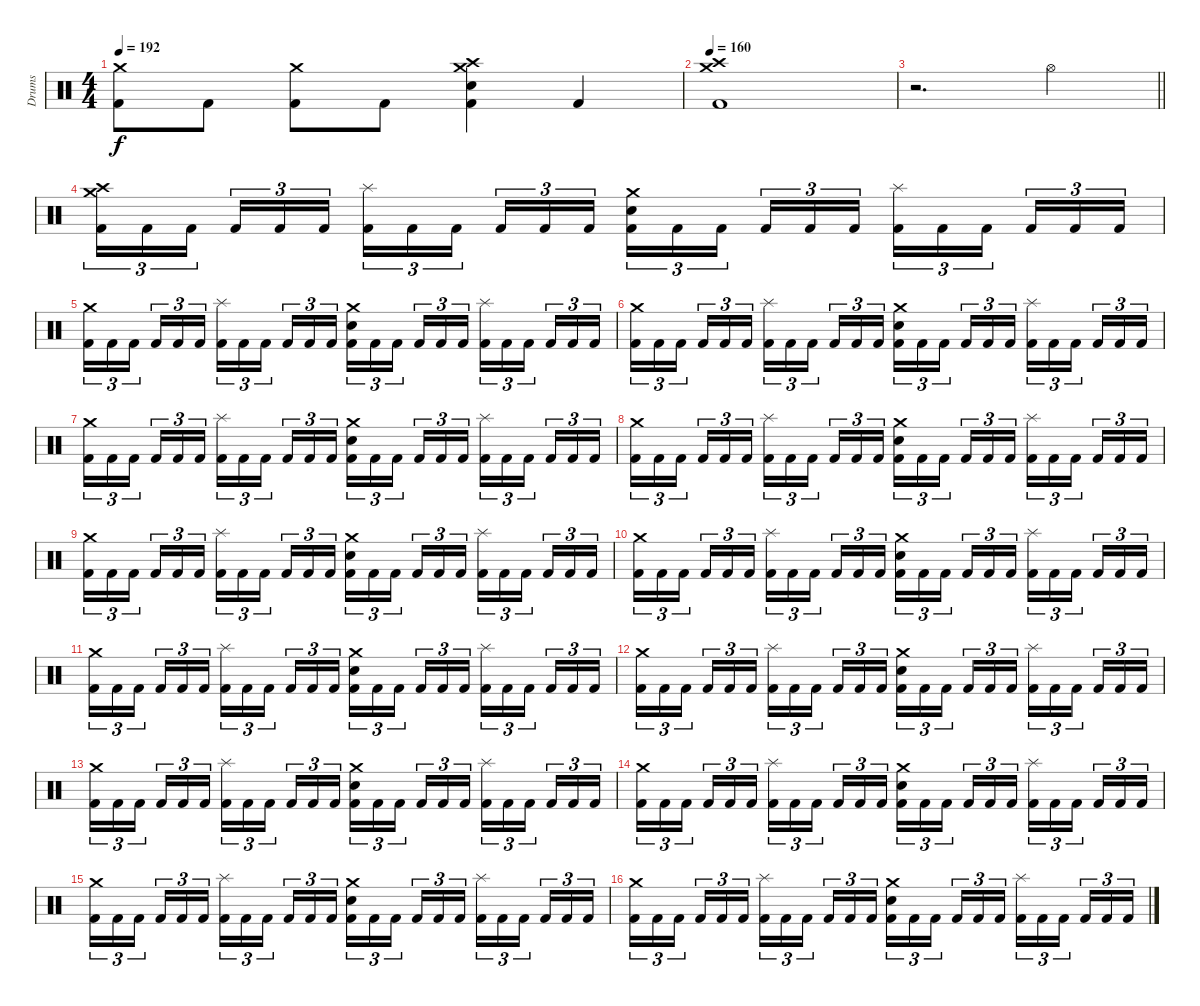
\track ("Drums" "Drums") {instrument percussion}
\staff {score}
\articulation defaults
\ts (4 4)
\tempo 192
\clef neutral
\ks c
("Crash medium (hit)" "Kick (hit) 2").8{dy f} "Kick (hit) 2".8 ("Crash medium (hit)" "Kick (hit) 2").8 "Kick (hit) 2".8 ("Crash high (hit)" "Crash medium (hit)" "Snare (hit) 2" "Kick (hit) 2").4 "Kick (hit) 2".4 |
\tempo 160
("Crash medium (hit)" "Crash high (hit)" "Kick (hit) 2").1 |
\barLineRight lightlight
r.2{d} "Hi-Hat (open)".4 |
\section ("" "")
("Crash medium (hit)" "Crash high (hit)" "Kick (hit) 2").16{tu (3 2)} "Kick (hit) 2".16{tu (3 2)} "Kick (hit) 2".16{tu (3 2) beam splitsecondary} "Kick (hit) 2".16{tu (3 2)} "Kick (hit) 2".16{tu (3 2)} "Kick (hit) 2".16{tu (3 2)} ("Splash (hit)" "Kick (hit) 2").16{tu (3 2)} "Kick (hit) 2".16{tu (3 2)} "Kick (hit) 2".16{tu (3 2) beam splitsecondary} "Kick (hit) 2".16{tu (3 2)} "Kick (hit) 2".16{tu (3 2)} "Kick (hit) 2".16{tu (3 2)} ("Crash medium (hit)" "Snare (hit) 2" "Kick (hit) 2").16{tu (3 2)} "Kick (hit) 2".16{tu (3 2)} "Kick (hit) 2".16{tu (3 2) beam splitsecondary} "Kick (hit) 2".16{tu (3 2)} "Kick (hit) 2".16{tu (3 2)} "Kick (hit) 2".16{tu (3 2)} ("Splash (hit)" "Kick (hit) 2").16{tu (3 2)} "Kick (hit) 2".16{tu (3 2)} "Kick (hit) 2".16{tu (3 2) beam splitsecondary} "Kick (hit) 2".16{tu (3 2)} "Kick (hit) 2".16{tu (3 2)} "Kick (hit) 2".16{tu (3 2)} |
("Crash medium (hit)" "Kick (hit) 2").16{tu (3 2)} "Kick (hit) 2".16{tu (3 2)} "Kick (hit) 2".16{tu (3 2) beam splitsecondary} "Kick (hit) 2".16{tu (3 2)} "Kick (hit) 2".16{tu (3 2)} "Kick (hit) 2".16{tu (3 2)} ("Splash (hit)" "Kick (hit) 2").16{tu (3 2)} "Kick (hit) 2".16{tu (3 2)} "Kick (hit) 2".16{tu (3 2) beam splitsecondary} "Kick (hit) 2".16{tu (3 2)} "Kick (hit) 2".16{tu (3 2)} "Kick (hit) 2".16{tu (3 2)} ("Crash medium (hit)" "Snare (hit) 2" "Kick (hit) 2").16{tu (3 2)} "Kick (hit) 2".16{tu (3 2)} "Kick (hit) 2".16{tu (3 2) beam splitsecondary} "Kick (hit) 2".16{tu (3 2)} "Kick (hit) 2".16{tu (3 2)} "Kick (hit) 2".16{tu (3 2)} ("Splash (hit)" "Kick (hit) 2").16{tu (3 2)} "Kick (hit) 2".16{tu (3 2)} "Kick (hit) 2".16{tu (3 2) beam splitsecondary} "Kick (hit) 2".16{tu (3 2)} "Kick (hit) 2".16{tu (3 2)} "Kick (hit) 2".16{tu (3 2)} |
("Crash medium (hit)" "Kick (hit) 2").16{tu (3 2)} "Kick (hit) 2".16{tu (3 2)} "Kick (hit) 2".16{tu (3 2) beam splitsecondary} "Kick (hit) 2".16{tu (3 2)} "Kick (hit) 2".16{tu (3 2)} "Kick (hit) 2".16{tu (3 2)} ("Splash (hit)" "Kick (hit) 2").16{tu (3 2)} "Kick (hit) 2".16{tu (3 2)} "Kick (hit) 2".16{tu (3 2) beam splitsecondary} "Kick (hit) 2".16{tu (3 2)} "Kick (hit) 2".16{tu (3 2)} "Kick (hit) 2".16{tu (3 2)} ("Crash medium (hit)" "Snare (hit) 2" "Kick (hit) 2").16{tu (3 2)} "Kick (hit) 2".16{tu (3 2)} "Kick (hit) 2".16{tu (3 2) beam splitsecondary} "Kick (hit) 2".16{tu (3 2)} "Kick (hit) 2".16{tu (3 2)} "Kick (hit) 2".16{tu (3 2)} ("Splash (hit)" "Kick (hit) 2").16{tu (3 2)} "Kick (hit) 2".16{tu (3 2)} "Kick (hit) 2".16{tu (3 2) beam splitsecondary} "Kick (hit) 2".16{tu (3 2)} "Kick (hit) 2".16{tu (3 2)} "Kick (hit) 2".16{tu (3 2)} |
("Crash medium (hit)" "Kick (hit) 2").16{tu (3 2)} "Kick (hit) 2".16{tu (3 2)} "Kick (hit) 2".16{tu (3 2) beam splitsecondary} "Kick (hit) 2".16{tu (3 2)} "Kick (hit) 2".16{tu (3 2)} "Kick (hit) 2".16{tu (3 2)} ("Splash (hit)" "Kick (hit) 2").16{tu (3 2)} "Kick (hit) 2".16{tu (3 2)} "Kick (hit) 2".16{tu (3 2) beam splitsecondary} "Kick (hit) 2".16{tu (3 2)} "Kick (hit) 2".16{tu (3 2)} "Kick (hit) 2".16{tu (3 2)} ("Crash medium (hit)" "Snare (hit) 2" "Kick (hit) 2").16{tu (3 2)} "Kick (hit) 2".16{tu (3 2)} "Kick (hit) 2".16{tu (3 2) beam splitsecondary} "Kick (hit) 2".16{tu (3 2)} "Kick (hit) 2".16{tu (3 2)} "Kick (hit) 2".16{tu (3 2)} ("Splash (hit)" "Kick (hit) 2").16{tu (3 2)} "Kick (hit) 2".16{tu (3 2)} "Kick (hit) 2".16{tu (3 2) beam splitsecondary} "Kick (hit) 2".16{tu (3 2)} "Kick (hit) 2".16{tu (3 2)} "Kick (hit) 2".16{tu (3 2)} |
("Crash medium (hit)" "Kick (hit) 2").16{tu (3 2)} "Kick (hit) 2".16{tu (3 2)} "Kick (hit) 2".16{tu (3 2) beam splitsecondary} "Kick (hit) 2".16{tu (3 2)} "Kick (hit) 2".16{tu (3 2)} "Kick (hit) 2".16{tu (3 2)} ("Splash (hit)" "Kick (hit) 2").16{tu (3 2)} "Kick (hit) 2".16{tu (3 2)} "Kick (hit) 2".16{tu (3 2) beam splitsecondary} "Kick (hit) 2".16{tu (3 2)} "Kick (hit) 2".16{tu (3 2)} "Kick (hit) 2".16{tu (3 2)} ("Crash medium (hit)" "Snare (hit) 2" "Kick (hit) 2").16{tu (3 2)} "Kick (hit) 2".16{tu (3 2)} "Kick (hit) 2".16{tu (3 2) beam splitsecondary} "Kick (hit) 2".16{tu (3 2)} "Kick (hit) 2".16{tu (3 2)} "Kick (hit) 2".16{tu (3 2)} ("Splash (hit)" "Kick (hit) 2").16{tu (3 2)} "Kick (hit) 2".16{tu (3 2)} "Kick (hit) 2".16{tu (3 2) beam splitsecondary} "Kick (hit) 2".16{tu (3 2)} "Kick (hit) 2".16{tu (3 2)} "Kick (hit) 2".16{tu (3 2)} |
("Crash medium (hit)" "Kick (hit) 2").16{tu (3 2)} "Kick (hit) 2".16{tu (3 2)} "Kick (hit) 2".16{tu (3 2) beam splitsecondary} "Kick (hit) 2".16{tu (3 2)} "Kick (hit) 2".16{tu (3 2)} "Kick (hit) 2".16{tu (3 2)} ("Splash (hit)" "Kick (hit) 2").16{tu (3 2)} "Kick (hit) 2".16{tu (3 2)} "Kick (hit) 2".16{tu (3 2) beam splitsecondary} "Kick (hit) 2".16{tu (3 2)} "Kick (hit) 2".16{tu (3 2)} "Kick (hit) 2".16{tu (3 2)} ("Crash medium (hit)" "Snare (hit) 2" "Kick (hit) 2").16{tu (3 2)} "Kick (hit) 2".16{tu (3 2)} "Kick (hit) 2".16{tu (3 2) beam splitsecondary} "Kick (hit) 2".16{tu (3 2)} "Kick (hit) 2".16{tu (3 2)} "Kick (hit) 2".16{tu (3 2)} ("Splash (hit)" "Kick (hit) 2").16{tu (3 2)} "Kick (hit) 2".16{tu (3 2)} "Kick (hit) 2".16{tu (3 2) beam splitsecondary} "Kick (hit) 2".16{tu (3 2)} "Kick (hit) 2".16{tu (3 2)} "Kick (hit) 2".16{tu (3 2)} |
("Crash medium (hit)" "Kick (hit) 2").16{tu (3 2)} "Kick (hit) 2".16{tu (3 2)} "Kick (hit) 2".16{tu (3 2) beam splitsecondary} "Kick (hit) 2".16{tu (3 2)} "Kick (hit) 2".16{tu (3 2)} "Kick (hit) 2".16{tu (3 2)} ("Splash (hit)" "Kick (hit) 2").16{tu (3 2)} "Kick (hit) 2".16{tu (3 2)} "Kick (hit) 2".16{tu (3 2) beam splitsecondary} "Kick (hit) 2".16{tu (3 2)} "Kick (hit) 2".16{tu (3 2)} "Kick (hit) 2".16{tu (3 2)} ("Crash medium (hit)" "Snare (hit) 2" "Kick (hit) 2").16{tu (3 2)} "Kick (hit) 2".16{tu (3 2)} "Kick (hit) 2".16{tu (3 2) beam splitsecondary} "Kick (hit) 2".16{tu (3 2)} "Kick (hit) 2".16{tu (3 2)} "Kick (hit) 2".16{tu (3 2)} ("Splash (hit)" "Kick (hit) 2").16{tu (3 2)} "Kick (hit) 2".16{tu (3 2)} "Kick (hit) 2".16{tu (3 2) beam splitsecondary} "Kick (hit) 2".16{tu (3 2)} "Kick (hit) 2".16{tu (3 2)} "Kick (hit) 2".16{tu (3 2)} |
("Crash medium (hit)" "Kick (hit) 2").16{tu (3 2)} "Kick (hit) 2".16{tu (3 2)} "Kick (hit) 2".16{tu (3 2) beam splitsecondary} "Kick (hit) 2".16{tu (3 2)} "Kick (hit) 2".16{tu (3 2)} "Kick (hit) 2".16{tu (3 2)} ("Splash (hit)" "Kick (hit) 2").16{tu (3 2)} "Kick (hit) 2".16{tu (3 2)} "Kick (hit) 2".16{tu (3 2) beam splitsecondary} "Kick (hit) 2".16{tu (3 2)} "Kick (hit) 2".16{tu (3 2)} "Kick (hit) 2".16{tu (3 2)} ("Crash medium (hit)" "Snare (hit) 2" "Kick (hit) 2").16{tu (3 2)} "Kick (hit) 2".16{tu (3 2)} "Kick (hit) 2".16{tu (3 2) beam splitsecondary} "Kick (hit) 2".16{tu (3 2)} "Kick (hit) 2".16{tu (3 2)} "Kick (hit) 2".16{tu (3 2)} ("Splash (hit)" "Kick (hit) 2").16{tu (3 2)} "Kick (hit) 2".16{tu (3 2)} "Kick (hit) 2".16{tu (3 2) beam splitsecondary} "Kick (hit) 2".16{tu (3 2)} "Kick (hit) 2".16{tu (3 2)} "Kick (hit) 2".16{tu (3 2)} |
("Crash medium (hit)" "Kick (hit) 2").16{tu (3 2)} "Kick (hit) 2".16{tu (3 2)} "Kick (hit) 2".16{tu (3 2) beam splitsecondary} "Kick (hit) 2".16{tu (3 2)} "Kick (hit) 2".16{tu (3 2)} "Kick (hit) 2".16{tu (3 2)} ("Splash (hit)" "Kick (hit) 2").16{tu (3 2)} "Kick (hit) 2".16{tu (3 2)} "Kick (hit) 2".16{tu (3 2) beam splitsecondary} "Kick (hit) 2".16{tu (3 2)} "Kick (hit) 2".16{tu (3 2)} "Kick (hit) 2".16{tu (3 2)} ("Crash medium (hit)" "Snare (hit) 2" "Kick (hit) 2").16{tu (3 2)} "Kick (hit) 2".16{tu (3 2)} "Kick (hit) 2".16{tu (3 2) beam splitsecondary} "Kick (hit) 2".16{tu (3 2)} "Kick (hit) 2".16{tu (3 2)} "Kick (hit) 2".16{tu (3 2)} ("Splash (hit)" "Kick (hit) 2").16{tu (3 2)} "Kick (hit) 2".16{tu (3 2)} "Kick (hit) 2".16{tu (3 2) beam splitsecondary} "Kick (hit) 2".16{tu (3 2)} "Kick (hit) 2".16{tu (3 2)} "Kick (hit) 2".16{tu (3 2)} |
("Crash medium (hit)" "Kick (hit) 2").16{tu (3 2)} "Kick (hit) 2".16{tu (3 2)} "Kick (hit) 2".16{tu (3 2) beam splitsecondary} "Kick (hit) 2".16{tu (3 2)} "Kick (hit) 2".16{tu (3 2)} "Kick (hit) 2".16{tu (3 2)} ("Splash (hit)" "Kick (hit) 2").16{tu (3 2)} "Kick (hit) 2".16{tu (3 2)} "Kick (hit) 2".16{tu (3 2) beam splitsecondary} "Kick (hit) 2".16{tu (3 2)} "Kick (hit) 2".16{tu (3 2)} "Kick (hit) 2".16{tu (3 2)} ("Crash medium (hit)" "Snare (hit) 2" "Kick (hit) 2").16{tu (3 2)} "Kick (hit) 2".16{tu (3 2)} "Kick (hit) 2".16{tu (3 2) beam splitsecondary} "Kick (hit) 2".16{tu (3 2)} "Kick (hit) 2".16{tu (3 2)} "Kick (hit) 2".16{tu (3 2)} ("Splash (hit)" "Kick (hit) 2").16{tu (3 2)} "Kick (hit) 2".16{tu (3 2)} "Kick (hit) 2".16{tu (3 2) beam splitsecondary} "Kick (hit) 2".16{tu (3 2)} "Kick (hit) 2".16{tu (3 2)} "Kick (hit) 2".16{tu (3 2)} |
("Crash medium (hit)" "Kick (hit) 2").16{tu (3 2)} "Kick (hit) 2".16{tu (3 2)} "Kick (hit) 2".16{tu (3 2) beam splitsecondary} "Kick (hit) 2".16{tu (3 2)} "Kick (hit) 2".16{tu (3 2)} "Kick (hit) 2".16{tu (3 2)} ("Splash (hit)" "Kick (hit) 2").16{tu (3 2)} "Kick (hit) 2".16{tu (3 2)} "Kick (hit) 2".16{tu (3 2) beam splitsecondary} "Kick (hit) 2".16{tu (3 2)} "Kick (hit) 2".16{tu (3 2)} "Kick (hit) 2".16{tu (3 2)} ("Crash medium (hit)" "Snare (hit) 2" "Kick (hit) 2").16{tu (3 2)} "Kick (hit) 2".16{tu (3 2)} "Kick (hit) 2".16{tu (3 2) beam splitsecondary} "Kick (hit) 2".16{tu (3 2)} "Kick (hit) 2".16{tu (3 2)} "Kick (hit) 2".16{tu (3 2)} ("Splash (hit)" "Kick (hit) 2").16{tu (3 2)} "Kick (hit) 2".16{tu (3 2)} "Kick (hit) 2".16{tu (3 2) beam splitsecondary} "Kick (hit) 2".16{tu (3 2)} "Kick (hit) 2".16{tu (3 2)} "Kick (hit) 2".16{tu (3 2)} |
("Crash medium (hit)" "Kick (hit) 2").16{tu (3 2)} "Kick (hit) 2".16{tu (3 2)} "Kick (hit) 2".16{tu (3 2) beam splitsecondary} "Kick (hit) 2".16{tu (3 2)} "Kick (hit) 2".16{tu (3 2)} "Kick (hit) 2".16{tu (3 2)} ("Splash (hit)" "Kick (hit) 2").16{tu (3 2)} "Kick (hit) 2".16{tu (3 2)} "Kick (hit) 2".16{tu (3 2) beam splitsecondary} "Kick (hit) 2".16{tu (3 2)} "Kick (hit) 2".16{tu (3 2)} "Kick (hit) 2".16{tu (3 2)} ("Crash medium (hit)" "Snare (hit) 2" "Kick (hit) 2").16{tu (3 2)} "Kick (hit) 2".16{tu (3 2)} "Kick (hit) 2".16{tu (3 2) beam splitsecondary} "Kick (hit) 2".16{tu (3 2)} "Kick (hit) 2".16{tu (3 2)} "Kick (hit) 2".16{tu (3 2)} ("Splash (hit)" "Kick (hit) 2").16{tu (3 2)} "Kick (hit) 2".16{tu (3 2)} "Kick (hit) 2".16{tu (3 2) beam splitsecondary} "Kick (hit) 2".16{tu (3 2)} "Kick (hit) 2".16{tu (3 2)} "Kick (hit) 2".16{tu (3 2)} |
("Crash medium (hit)" "Kick (hit) 2").16{tu (3 2)} "Kick (hit) 2".16{tu (3 2)} "Kick (hit) 2".16{tu (3 2) beam splitsecondary} "Kick (hit) 2".16{tu (3 2)} "Kick (hit) 2".16{tu (3 2)} "Kick (hit) 2".16{tu (3 2)} ("Splash (hit)" "Kick (hit) 2").16{tu (3 2)} "Kick (hit) 2".16{tu (3 2)} "Kick (hit) 2".16{tu (3 2) beam splitsecondary} "Kick (hit) 2".16{tu (3 2)} "Kick (hit) 2".16{tu (3 2)} "Kick (hit) 2".16{tu (3 2)} ("Crash medium (hit)" "Snare (hit) 2" "Kick (hit) 2").16{tu (3 2)} "Kick (hit) 2".16{tu (3 2)} "Kick (hit) 2".16{tu (3 2) beam splitsecondary} "Kick (hit) 2".16{tu (3 2)} "Kick (hit) 2".16{tu (3 2)} "Kick (hit) 2".16{tu (3 2)} ("Splash (hit)" "Kick (hit) 2").16{tu (3 2)} "Kick (hit) 2".16{tu (3 2)} "Kick (hit) 2".16{tu (3 2) beam splitsecondary} "Kick (hit) 2".16{tu (3 2)} "Kick (hit) 2".16{tu (3 2)} "Kick (hit) 2".16{tu (3 2)}
